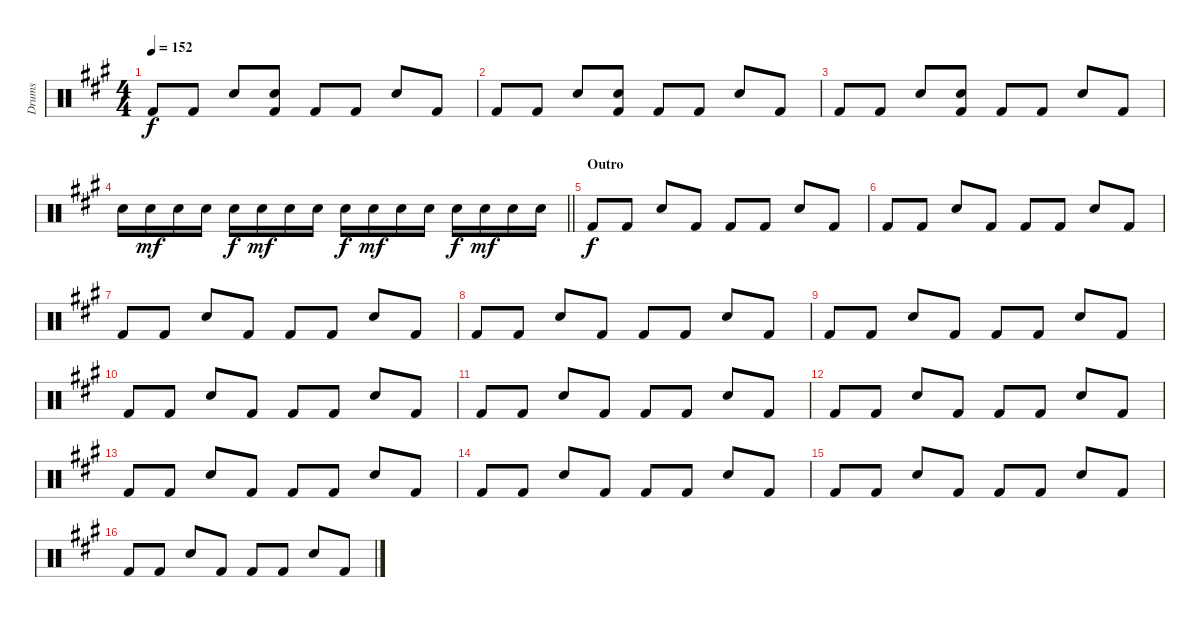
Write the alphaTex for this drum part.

\track ("Drums" "Drums") {instrument percussion}
\staff {score}
\articulation defaults
\ts (4 4)
\tempo 152
\clef neutral
\ks a "Kick (hit) 2".8{dy f} "Kick (hit) 2".8 "Snare (hit) 2".8
("Snare (hit) 2" "Kick (hit) 2").8 "Kick (hit) 2".8 "Kick (hit) 2".8 "Snare (hit) 2".8 "Kick (hit) 2".8 |
"Kick (hit) 2".8 "Kick (hit) 2".8 "Snare (hit) 2".8 ("Snare (hit) 2" "Kick (hit) 2").8 "Kick (hit) 2".8 "Kick (hit) 2".8 "Snare (hit) 2".8 "Kick (hit) 2".8 |
"Kick (hit) 2".8 "Kick (hit) 2".8 "Snare (hit) 2".8 ("Snare (hit) 2" "Kick (hit) 2").8 "Kick (hit) 2".8 "Kick (hit) 2".8 "Snare (hit) 2".8 "Kick (hit) 2".8 |
\barLineRight lightlight "Snare (hit) 2".16 "Snare (hit) 2".16{dy mf} "Snare (hit) 2".16 "Snare (hit) 2".16 "Snare (hit) 2".16{dy f} "Snare (hit) 2".16{dy mf} "Snare (hit) 2".16 "Snare (hit) 2".16 "Snare (hit) 2".16{dy f} "Snare (hit) 2".16{dy mf} "Snare (hit) 2".16 "Snare (hit) 2".16 "Snare (hit) 2".16{dy f} "Snare (hit) 2".16{dy mf} "Snare (hit) 2".16 "Snare (hit) 2".16
|
\section ("" "Outro")
"Kick (hit) 2".8{dy f} "Kick (hit) 2".8 "Snare (hit) 2".8 "Kick (hit) 2".8 "Kick (hit) 2".8 "Kick (hit) 2".8 "Snare (hit) 2".8 "Kick (hit) 2".8 |
"Kick (hit) 2".8 "Kick (hit) 2".8 "Snare (hit) 2".8 "Kick (hit) 2".8 "Kick (hit) 2".8 "Kick (hit) 2".8 "Snare (hit) 2".8 "Kick (hit) 2".8 |
"Kick (hit) 2".8 "Kick (hit) 2".8 "Snare (hit) 2".8 "Kick (hit) 2".8 "Kick (hit) 2".8 "Kick (hit) 2".8 "Snare (hit) 2".8 "Kick (hit) 2".8 |
"Kick (hit) 2".8 "Kick (hit) 2".8 "Snare (hit) 2".8 "Kick (hit) 2".8 "Kick (hit) 2".8 "Kick (hit) 2".8 "Snare (hit) 2".8 "Kick (hit) 2".8 |
"Kick (hit) 2".8 "Kick (hit) 2".8 "Snare (hit) 2".8 "Kick (hit) 2".8 "Kick (hit) 2".8 "Kick (hit) 2".8 "Snare (hit) 2".8 "Kick (hit) 2".8 |
"Kick (hit) 2".8 "Kick (hit) 2".8 "Snare (hit) 2".8 "Kick (hit) 2".8 "Kick (hit) 2".8 "Kick (hit) 2".8 "Snare (hit) 2".8 "Kick (hit) 2".8 |
"Kick (hit) 2".8 "Kick (hit) 2".8 "Snare (hit) 2".8 "Kick (hit) 2".8 "Kick (hit) 2".8 "Kick (hit) 2".8 "Snare (hit) 2".8 "Kick (hit) 2".8 |
"Kick (hit) 2".8 "Kick (hit) 2".8 "Snare (hit) 2".8 "Kick (hit) 2".8 "Kick (hit) 2".8 "Kick (hit) 2".8 "Snare (hit) 2".8 "Kick (hit) 2".8 |
"Kick (hit) 2".8 "Kick (hit) 2".8 "Snare (hit) 2".8 "Kick (hit) 2".8 "Kick (hit) 2".8 "Kick (hit) 2".8 "Snare (hit) 2".8 "Kick (hit) 2".8 |
"Kick (hit) 2".8 "Kick (hit) 2".8 "Snare (hit) 2".8 "Kick (hit) 2".8 "Kick (hit) 2".8 "Kick (hit) 2".8 "Snare (hit) 2".8 "Kick (hit) 2".8 |
"Kick (hit) 2".8 "Kick (hit) 2".8 "Snare (hit) 2".8 "Kick (hit) 2".8 "Kick (hit) 2".8 "Kick (hit) 2".8 "Snare (hit) 2".8 "Kick (hit) 2".8 |
"Kick (hit) 2".8 "Kick (hit) 2".8 "Snare (hit) 2".8 "Kick (hit) 2".8 "Kick (hit) 2".8 "Kick (hit) 2".8 "Snare (hit) 2".8 "Kick (hit) 2".8
